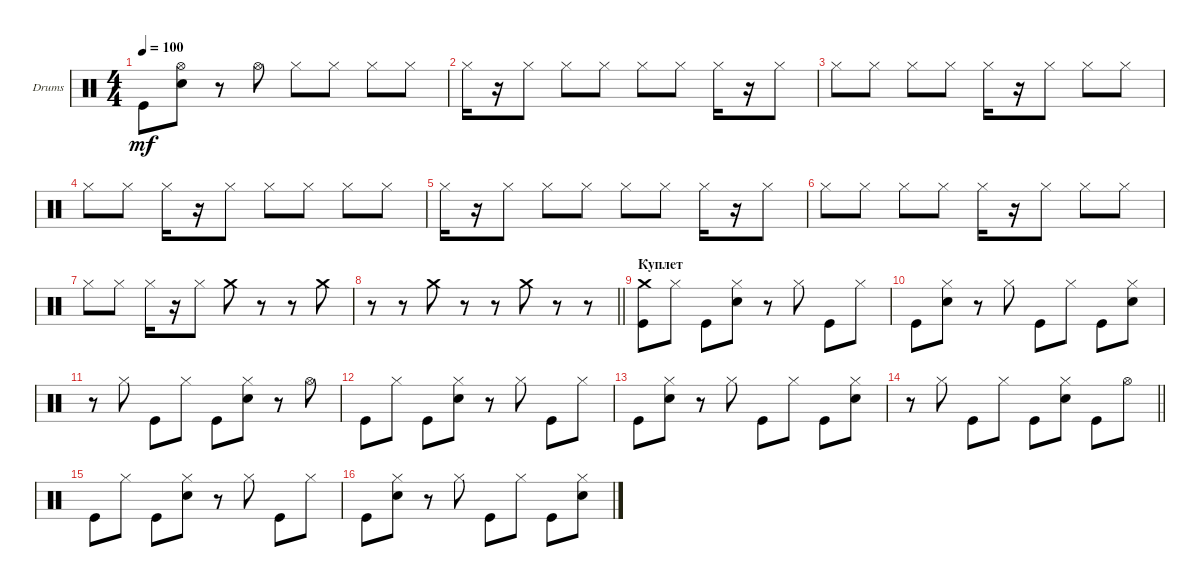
\bracketExtendMode groupsimilarinstruments
\firstSystemTrackNameOrientation horizontal
\otherSystemsTrackNameOrientation horizontal
\track ("Е. Кулаков" "Drums") {instrument percussion}
\staff {score}
\articulation defaults
\ts (4 4)
\tempo 100
\clef neutral
\ks c "Kick (hit)".8{dy mf}
("Snare (hit) 2" "Hi-Hat (open)").8 r.8 "Hi-Hat (open)".8 "Hi-Hat (closed)".8 "Hi-Hat (closed)".8 "Hi-Hat (closed)".8 "Hi-Hat (closed)".8 |
"Hi-Hat (closed)".16 r.16 "Hi-Hat (closed)".8 "Hi-Hat (closed)".8 "Hi-Hat (closed)".8 "Hi-Hat (closed)".8 "Hi-Hat (closed)".8 "Hi-Hat (closed)".16 r.16 "Hi-Hat (closed)".8 |
"Hi-Hat (closed)".8 "Hi-Hat (closed)".8 "Hi-Hat (closed)".8 "Hi-Hat (closed)".8 "Hi-Hat (closed)".16 r.16 "Hi-Hat (closed)".8 "Hi-Hat (closed)".8 "Hi-Hat (closed)".8 |
"Hi-Hat (closed)".8 "Hi-Hat (closed)".8 "Hi-Hat (closed)".16 r.16 "Hi-Hat (closed)".8 "Hi-Hat (closed)".8 "Hi-Hat (closed)".8 "Hi-Hat (closed)".8 "Hi-Hat (closed)".8 |
"Hi-Hat (closed)".16 r.16 "Hi-Hat (closed)".8 "Hi-Hat (closed)".8 "Hi-Hat (closed)".8 "Hi-Hat (closed)".8 "Hi-Hat (closed)".8 "Hi-Hat (closed)".16 r.16 "Hi-Hat (closed)".8 |
"Hi-Hat (closed)".8 "Hi-Hat (closed)".8 "Hi-Hat (closed)".8 "Hi-Hat (closed)".8 "Hi-Hat (closed)".16 r.16 "Hi-Hat (closed)".8 "Hi-Hat (closed)".8 "Hi-Hat (closed)".8 |
"Hi-Hat (closed)".8 "Hi-Hat (closed)".8 "Hi-Hat (closed)".16 r.16 "Hi-Hat (closed)".8 "Crash medium (hit)".8 r.8 r.8 "Crash medium (hit)".8 |
\barLineRight lightlight
r.8 r.8 "Crash medium (hit)".8 r.8 r.8 "Crash medium (hit)".8 r.8 r.8 |
\section ("" "Куплет")
("Kick (hit)" "Crash medium (hit)").8 "Hi-Hat (closed)".8 "Kick (hit)".8 ("Snare (hit) 2" "Hi-Hat (closed)").8 r.8 "Hi-Hat (closed)".8 "Kick (hit)".8 "Hi-Hat (closed)".8 |
"Kick (hit)".8 ("Snare (hit) 2" "Hi-Hat (closed)").8 r.8 "Hi-Hat (closed)".8 "Kick (hit)".8 "Hi-Hat (closed)".8 "Kick (hit)".8 ("Snare (hit) 2" "Hi-Hat (closed)").8 |
r.8 "Hi-Hat (closed)".8 "Kick (hit)".8 "Hi-Hat (closed)".8 "Kick (hit)".8 ("Snare (hit) 2" "Hi-Hat (closed)").8 r.8 "Hi-Hat (open)".8 |
"Kick (hit)".8 "Hi-Hat (closed)".8 "Kick (hit)".8 ("Snare (hit) 2" "Hi-Hat (closed)").8 r.8 "Hi-Hat (closed)".8 "Kick (hit)".8 "Hi-Hat (closed)".8 |
"Kick (hit)".8 ("Snare (hit) 2" "Hi-Hat (closed)").8 r.8 "Hi-Hat (closed)".8 "Kick (hit)".8 "Hi-Hat (closed)".8 "Kick (hit)".8 ("Snare (hit) 2" "Hi-Hat (closed)").8 |
\barLineRight lightlight
r.8 "Hi-Hat (closed)".8 "Kick (hit)".8 "Hi-Hat (closed)".8 "Kick (hit)".8 ("Snare (hit) 2" "Hi-Hat (closed)").8 "Kick (hit)".8 "Hi-Hat (open)".8 |
"Kick (hit)".8 "Hi-Hat (closed)".8 "Kick (hit)".8 ("Snare (hit) 2" "Hi-Hat (closed)").8 r.8 "Hi-Hat (closed)".8 "Kick (hit)".8 "Hi-Hat (closed)".8 |
"Kick (hit)".8 ("Snare (hit) 2" "Hi-Hat (closed)").8 r.8 "Hi-Hat (closed)".8 "Kick (hit)".8 "Hi-Hat (closed)".8 "Kick (hit)".8 ("Snare (hit) 2" "Hi-Hat (closed)").8
